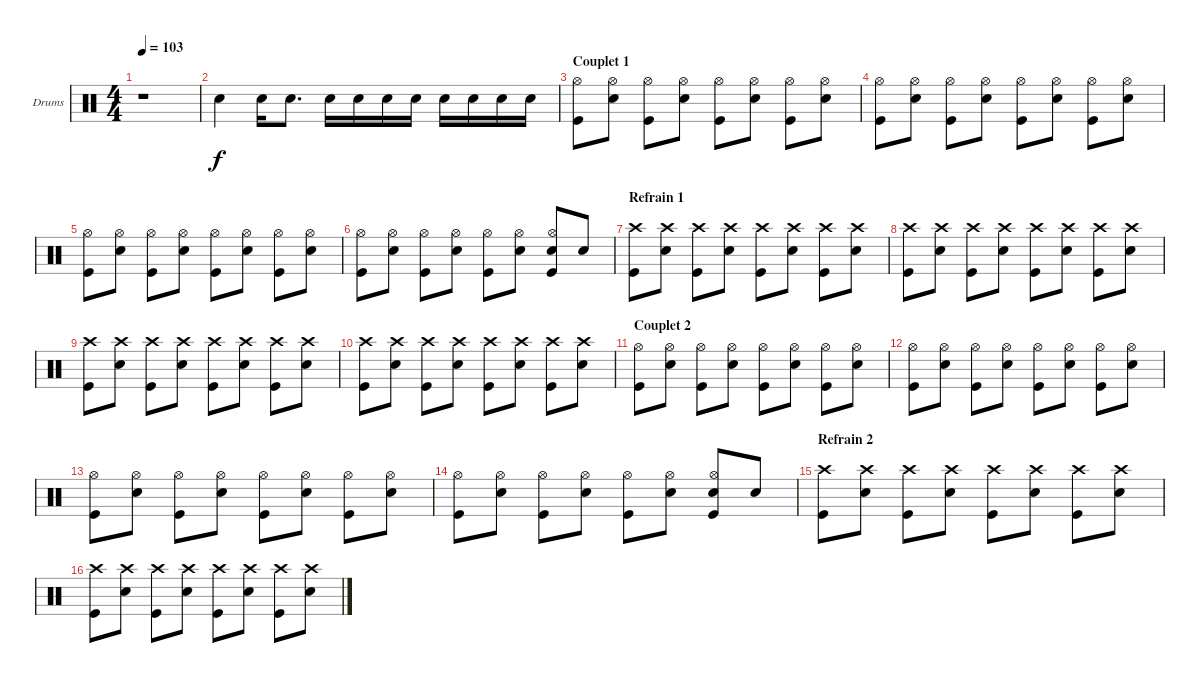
\bracketExtendMode groupsimilarinstruments
\firstSystemTrackNameOrientation horizontal
\otherSystemsTrackNameOrientation horizontal
\chordDiagramsInScore
\track ("Drumkit" "Drums") {instrument percussion}
\staff {score}
\articulation defaults
\ts (4 4)
\tempo 103
\clef neutral
\ks c
r.1{dy f} |
"Snare (hit) 2".4 "Snare (hit) 2".16 "Snare (hit) 2".8{d} "Snare (hit) 2".16 "Snare (hit) 2".16 "Snare (hit) 2".16 "Snare (hit) 2".16 "Snare (hit) 2".16 "Snare (hit) 2".16 "Snare (hit) 2".16 "Snare (hit) 2".16 |
\section ("" "Couplet 1")
("Hi-Hat (open)" "Kick (hit)").8 ("Hi-Hat (open)" "Snare (hit) 2").8 ("Hi-Hat (open)" "Kick (hit)").8 ("Hi-Hat (open)" "Snare (hit) 2").8 ("Hi-Hat (open)" "Kick (hit)").8 ("Hi-Hat (open)" "Snare (hit) 2").8 ("Hi-Hat (open)" "Kick (hit)").8 ("Hi-Hat (open)" "Snare (hit) 2").8 |
("Hi-Hat (open)" "Kick (hit)").8 ("Hi-Hat (open)" "Snare (hit) 2").8 ("Hi-Hat (open)" "Kick (hit)").8 ("Hi-Hat (open)" "Snare (hit) 2").8 ("Hi-Hat (open)" "Kick (hit)").8 ("Hi-Hat (open)" "Snare (hit) 2").8 ("Hi-Hat (open)" "Kick (hit)").8 ("Hi-Hat (open)" "Snare (hit) 2").8 |
("Hi-Hat (open)" "Kick (hit)").8 ("Hi-Hat (open)" "Snare (hit) 2").8 ("Hi-Hat (open)" "Kick (hit)").8 ("Hi-Hat (open)" "Snare (hit) 2").8 ("Hi-Hat (open)" "Kick (hit)").8 ("Hi-Hat (open)" "Snare (hit) 2").8 ("Hi-Hat (open)" "Kick (hit)").8 ("Hi-Hat (open)" "Snare (hit) 2").8 |
("Hi-Hat (open)" "Kick (hit)").8 ("Hi-Hat (open)" "Snare (hit) 2").8 ("Hi-Hat (open)" "Kick (hit)").8 ("Hi-Hat (open)" "Snare (hit) 2").8 ("Hi-Hat (open)" "Kick (hit)").8 ("Hi-Hat (open)" "Snare (hit) 2").8 ("Hi-Hat (open)" "Snare (hit) 2" "Kick (hit)").8 "Snare (hit) 2".8 |
\section ("" "Refrain 1")
("Crash high (hit)" "Kick (hit)").8 ("Crash high (hit)" "Snare (hit) 2").8 ("Crash high (hit)" "Kick (hit)").8 ("Crash high (hit)" "Snare (hit) 2").8 ("Crash high (hit)" "Kick (hit)").8 ("Crash high (hit)" "Snare (hit) 2").8 ("Crash high (hit)" "Kick (hit)").8 ("Crash high (hit)" "Snare (hit) 2").8 |
("Crash high (hit)" "Kick (hit)").8 ("Crash high (hit)" "Snare (hit) 2").8 ("Crash high (hit)" "Kick (hit)").8 ("Crash high (hit)" "Snare (hit) 2").8 ("Crash high (hit)" "Kick (hit)").8 ("Crash high (hit)" "Snare (hit) 2").8 ("Crash high (hit)" "Kick (hit)").8 ("Crash high (hit)" "Snare (hit) 2").8 |
("Crash high (hit)" "Kick (hit)").8 ("Crash high (hit)" "Snare (hit) 2").8 ("Crash high (hit)" "Kick (hit)").8 ("Crash high (hit)" "Snare (hit) 2").8 ("Crash high (hit)" "Kick (hit)").8 ("Crash high (hit)" "Snare (hit) 2").8 ("Crash high (hit)" "Kick (hit)").8 ("Crash high (hit)" "Snare (hit) 2").8 |
("Crash high (hit)" "Kick (hit)").8 ("Crash high (hit)" "Snare (hit) 2").8 ("Crash high (hit)" "Kick (hit)").8 ("Crash high (hit)" "Snare (hit) 2").8 ("Crash high (hit)" "Kick (hit)").8 ("Crash high (hit)" "Snare (hit) 2").8 ("Crash high (hit)" "Kick (hit)").8 ("Crash high (hit)" "Snare (hit) 2").8 |
\section ("" "Couplet 2")
("Hi-Hat (open)" "Kick (hit)").8 ("Hi-Hat (open)" "Snare (hit) 2").8 ("Hi-Hat (open)" "Kick (hit)").8 ("Hi-Hat (open)" "Snare (hit) 2").8 ("Hi-Hat (open)" "Kick (hit)").8 ("Hi-Hat (open)" "Snare (hit) 2").8 ("Hi-Hat (open)" "Kick (hit)").8 ("Hi-Hat (open)" "Snare (hit) 2").8 |
("Hi-Hat (open)" "Kick (hit)").8 ("Hi-Hat (open)" "Snare (hit) 2").8 ("Hi-Hat (open)" "Kick (hit)").8 ("Hi-Hat (open)" "Snare (hit) 2").8 ("Hi-Hat (open)" "Kick (hit)").8 ("Hi-Hat (open)" "Snare (hit) 2").8 ("Hi-Hat (open)" "Kick (hit)").8 ("Hi-Hat (open)" "Snare (hit) 2").8 |
("Hi-Hat (open)" "Kick (hit)").8 ("Hi-Hat (open)" "Snare (hit) 2").8 ("Hi-Hat (open)" "Kick (hit)").8 ("Hi-Hat (open)" "Snare (hit) 2").8 ("Hi-Hat (open)" "Kick (hit)").8 ("Hi-Hat (open)" "Snare (hit) 2").8 ("Hi-Hat (open)" "Kick (hit)").8 ("Hi-Hat (open)" "Snare (hit) 2").8 |
("Hi-Hat (open)" "Kick (hit)").8 ("Hi-Hat (open)" "Snare (hit) 2").8 ("Hi-Hat (open)" "Kick (hit)").8 ("Hi-Hat (open)" "Snare (hit) 2").8 ("Hi-Hat (open)" "Kick (hit)").8 ("Hi-Hat (open)" "Snare (hit) 2").8 ("Hi-Hat (open)" "Snare (hit) 2" "Kick (hit)").8 "Snare (hit) 2".8 |
\section ("" "Refrain 2")
("Crash high (hit)" "Kick (hit)").8 ("Crash high (hit)" "Snare (hit) 2").8 ("Crash high (hit)" "Kick (hit)").8 ("Crash high (hit)" "Snare (hit) 2").8 ("Crash high (hit)" "Kick (hit)").8 ("Crash high (hit)" "Snare (hit) 2").8 ("Crash high (hit)" "Kick (hit)").8 ("Crash high (hit)" "Snare (hit) 2").8 |
("Crash high (hit)" "Kick (hit)").8 ("Crash high (hit)" "Snare (hit) 2").8 ("Crash high (hit)" "Kick (hit)").8 ("Crash high (hit)" "Snare (hit) 2").8 ("Crash high (hit)" "Kick (hit)").8 ("Crash high (hit)" "Snare (hit) 2").8 ("Crash high (hit)" "Kick (hit)").8 ("Crash high (hit)" "Snare (hit) 2").8
